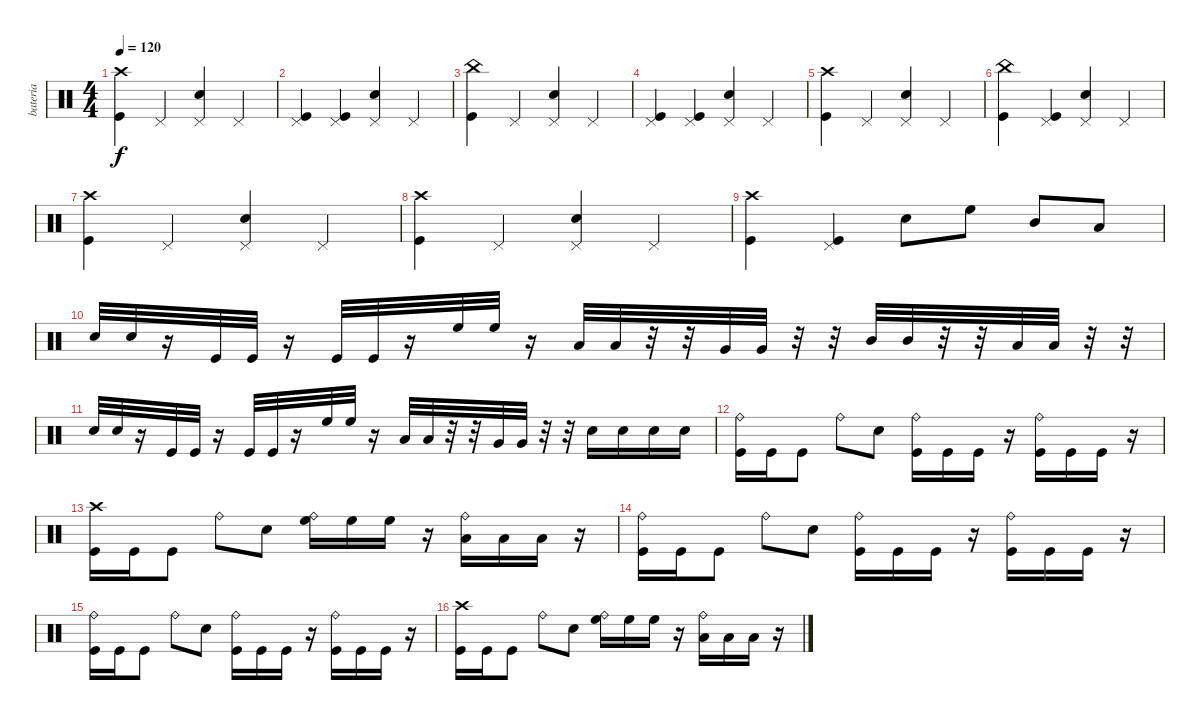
\track ("bateria" "bateria") {instrument percussion}
\staff {score}
\articulation defaults
\ts (4 4)
\tempo 120
\clef neutral
\ks c
("Crash high (hit)" "Kick (hit)").4{dy f} "Pedal Hi-Hat (hit)".4 ("Pedal Hi-Hat (hit)" "Snare (hit) 2").4 "Pedal Hi-Hat (hit)".4 |
("Pedal Hi-Hat (hit)" "Kick (hit)").4 ("Pedal Hi-Hat (hit)" "Kick (hit)").4 ("Pedal Hi-Hat (hit)" "Snare (hit) 2").4 "Pedal Hi-Hat (hit)".4 |
("China (hit)" "Kick (hit)").4 "Pedal Hi-Hat (hit)".4 ("Pedal Hi-Hat (hit)" "Snare (hit) 2").4 "Pedal Hi-Hat (hit)".4 |
("Pedal Hi-Hat (hit)" "Kick (hit)").4 ("Pedal Hi-Hat (hit)" "Kick (hit)").4 ("Pedal Hi-Hat (hit)" "Snare (hit) 2").4 "Pedal Hi-Hat (hit)".4 |
("Crash high (hit)" "Kick (hit)").4 "Pedal Hi-Hat (hit)".4 ("Pedal Hi-Hat (hit)" "Snare (hit) 2").4 "Pedal Hi-Hat (hit)".4 |
("China (hit)" "Kick (hit)").4 ("Pedal Hi-Hat (hit)" "Kick (hit)").4 ("Pedal Hi-Hat (hit)" "Snare (hit) 2").4 "Pedal Hi-Hat (hit)".4 |
("Crash high (hit)" "Kick (hit)").4 "Pedal Hi-Hat (hit)".4 ("Pedal Hi-Hat (hit)" "Snare (hit) 2").4 "Pedal Hi-Hat (hit)".4 |
("Crash high (hit)" "Kick (hit)").4 "Pedal Hi-Hat (hit)".4 ("Pedal Hi-Hat (hit)" "Snare (hit) 2").4 "Pedal Hi-Hat (hit)".4 |
("Crash high (hit)" "Kick (hit)").4 ("Pedal Hi-Hat (hit)" "Kick (hit)").4 "Electric Snare (hit)".8 "High Floor Tom (hit)".8 "Mid Tom (hit)".8 "Low Tom (hit)".8 |
"Electric Snare (hit)".32 "Electric Snare (hit)".32 r.16 "Kick (hit)".32 "Kick (hit)".32 r.16 "Kick (hit)".32 "Kick (hit)".32 r.16 "High Floor Tom (hit)".32 "High Floor Tom (hit)".32 r.16 "Low Tom (hit)".32 "Low Tom (hit)".32 r.32 r.32 "Very Low Tom (hit)".32 "Very Low Tom (hit)".32 r.32 r.32 "Mid Tom (hit)".32 "Mid Tom (hit)".32 r.32 r.32 "Low Tom (hit)".32 "Low Tom (hit)".32 r.32 r.32 |
"Electric Snare (hit)".32 "Electric Snare (hit)".32 r.16 "Kick (hit)".32 "Kick (hit)".32 r.16 "Kick (hit)".32 "Kick (hit)".32 r.16 "High Floor Tom (hit)".32 "High Floor Tom (hit)".32 r.16 "Low Tom (hit)".32 "Low Tom (hit)".32 r.32 r.32 "Very Low Tom (hit)".32 "Very Low Tom (hit)".32 r.32 r.32 "Electric Snare (hit)".16 "Electric Snare (hit)".16 "Electric Snare (hit)".16 "Electric Snare (hit)".16 |
("Ride (bell)" "Kick (hit)").16 "Kick (hit)".16 "Kick (hit)".8 "Ride (bell)".8 "Snare (hit) 2".8 ("Ride (bell)" "Kick (hit)").16 "Kick (hit)".16 "Kick (hit)".16 r.16 ("Ride (bell)" "Kick (hit)").16 "Kick (hit)".16 "Kick (hit)".16 r.16 |
("Crash high (hit)" "Kick (hit)").16 "Kick (hit)".16 "Kick (hit)".8 "Ride (bell)".8 "Snare (hit) 2".8 ("Ride (bell)" "High Floor Tom (hit)").16 "High Floor Tom (hit)".16 "High Floor Tom (hit)".16 r.16 ("Ride (bell)" "Low Tom (hit)").16 "Low Tom (hit)".16 "Low Tom (hit)".16 r.16 |
("Ride (bell)" "Kick (hit)").16 "Kick (hit)".16 "Kick (hit)".8 "Ride (bell)".8 "Snare (hit) 2".8 ("Ride (bell)" "Kick (hit)").16 "Kick (hit)".16 "Kick (hit)".16 r.16 ("Ride (bell)" "Kick (hit)").16 "Kick (hit)".16 "Kick (hit)".16 r.16 |
("Ride (bell)" "Kick (hit)").16 "Kick (hit)".16 "Kick (hit)".8 "Ride (bell)".8 "Snare (hit) 2".8 ("Ride (bell)" "Kick (hit)").16 "Kick (hit)".16 "Kick (hit)".16 r.16 ("Ride (bell)" "Kick (hit)").16 "Kick (hit)".16 "Kick (hit)".16 r.16 |
("Crash high (hit)" "Kick (hit)").16 "Kick (hit)".16 "Kick (hit)".8 "Ride (bell)".8 "Snare (hit) 2".8 ("Ride (bell)" "High Floor Tom (hit)").16 "High Floor Tom (hit)".16 "High Floor Tom (hit)".16 r.16 ("Ride (bell)" "Low Tom (hit)").16 "Low Tom (hit)".16 "Low Tom (hit)".16 r.16
